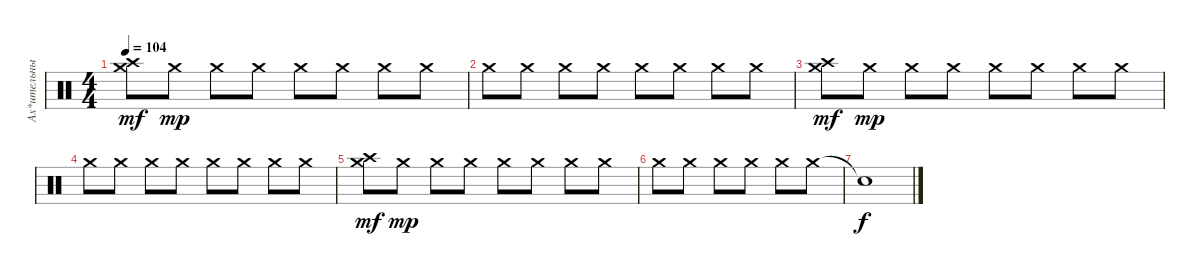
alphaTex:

\track ("Ах*ительный барабанщик" "Ах*ительны") {instrument percussion}
\staff {score}
\articulation defaults
\ts (4 4)
\tempo 104
\clef neutral
\ks c
("Crash high (hit)" "Crash medium (hit)").8{dy mf} "Crash medium (hit)".8{dy mp} "Crash medium (hit)".8 "Crash medium (hit)".8 "Crash medium (hit)".8 "Crash medium (hit)".8 "Crash medium (hit)".8 "Crash medium (hit)".8 |
"Crash medium (hit)".8 "Crash medium (hit)".8 "Crash medium (hit)".8 "Crash medium (hit)".8 "Crash medium (hit)".8 "Crash medium (hit)".8 "Crash medium (hit)".8 "Crash medium (hit)".8 |
("Crash high (hit)" "Crash medium (hit)").8{dy mf} "Crash medium (hit)".8{dy mp} "Crash medium (hit)".8 "Crash medium (hit)".8 "Crash medium (hit)".8 "Crash medium (hit)".8 "Crash medium (hit)".8 "Crash medium (hit)".8 |
"Crash medium (hit)".8 "Crash medium (hit)".8 "Crash medium (hit)".8 "Crash medium (hit)".8 "Crash medium (hit)".8 "Crash medium (hit)".8 "Crash medium (hit)".8 "Crash medium (hit)".8 |
("Crash high (hit)" "Crash medium (hit)").8{dy mf} "Crash medium (hit)".8{dy mp} "Crash medium (hit)".8 "Crash medium (hit)".8 "Crash medium (hit)".8 "Crash medium (hit)".8 "Crash medium (hit)".8 "Crash medium (hit)".8 |
"Crash medium (hit)".8 "Crash medium (hit)".8 "Crash medium (hit)".8 "Crash medium (hit)".8 "Crash medium (hit)".8 "Crash medium (hit)".8 |
"Snare (hit)"{t}.1{dy f}
